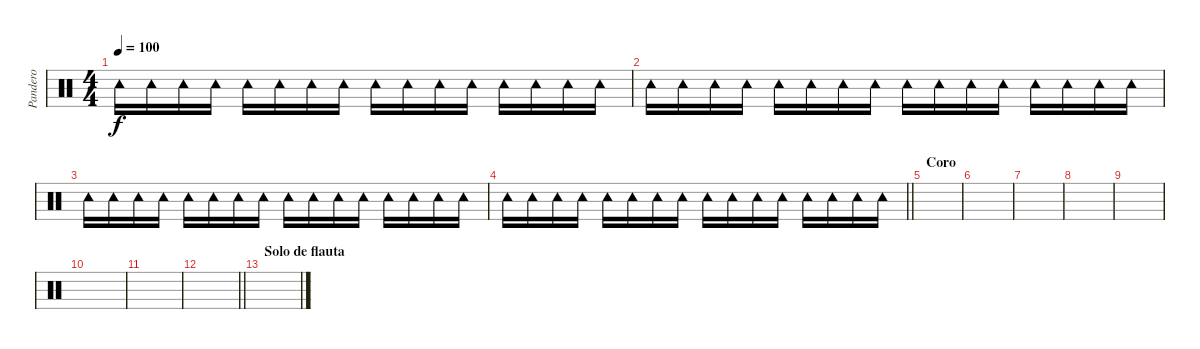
\track ("Pandero" "Pandero") {instrument percussion}
\staff {score}
\articulation defaults
\ts (4 4)
\tempo 100
\clef neutral
\ks c "Tambourine (hit)".16{dy f} "Tambourine (hit)".16 "Tambourine (hit)".16 "Tambourine (hit)".16 "Tambourine (hit)".16 "Tambourine (hit)".16 "Tambourine (hit)".16 "Tambourine (hit)".16 "Tambourine (hit)".16 "Tambourine (hit)".16 "Tambourine (hit)".16 "Tambourine (hit)".16 "Tambourine (hit)".16 "Tambourine (hit)".16 "Tambourine (hit)".16 "Tambourine (hit)".16
|
"Tambourine (hit)".16 "Tambourine (hit)".16 "Tambourine (hit)".16 "Tambourine (hit)".16 "Tambourine (hit)".16 "Tambourine (hit)".16 "Tambourine (hit)".16 "Tambourine (hit)".16 "Tambourine (hit)".16 "Tambourine (hit)".16 "Tambourine (hit)".16 "Tambourine (hit)".16 "Tambourine (hit)".16 "Tambourine (hit)".16 "Tambourine (hit)".16 "Tambourine (hit)".16 |
"Tambourine (hit)".16 "Tambourine (hit)".16 "Tambourine (hit)".16 "Tambourine (hit)".16 "Tambourine (hit)".16 "Tambourine (hit)".16 "Tambourine (hit)".16 "Tambourine (hit)".16 "Tambourine (hit)".16 "Tambourine (hit)".16 "Tambourine (hit)".16 "Tambourine (hit)".16 "Tambourine (hit)".16 "Tambourine (hit)".16 "Tambourine (hit)".16 "Tambourine (hit)".16 |
\barLineRight lightlight "Tambourine (hit)".16 "Tambourine (hit)".16 "Tambourine (hit)".16 "Tambourine (hit)".16 "Tambourine (hit)".16 "Tambourine (hit)".16 "Tambourine (hit)".16 "Tambourine (hit)".16 "Tambourine (hit)".16 "Tambourine (hit)".16 "Tambourine (hit)".16 "Tambourine (hit)".16 "Tambourine (hit)".16 "Tambourine (hit)".16 "Tambourine (hit)".16 "Tambourine (hit)".16
|
\section ("" "Coro")
|
|
|
|
|
|
|
\barLineRight lightlight
|
\section ("" "Solo de flauta")
